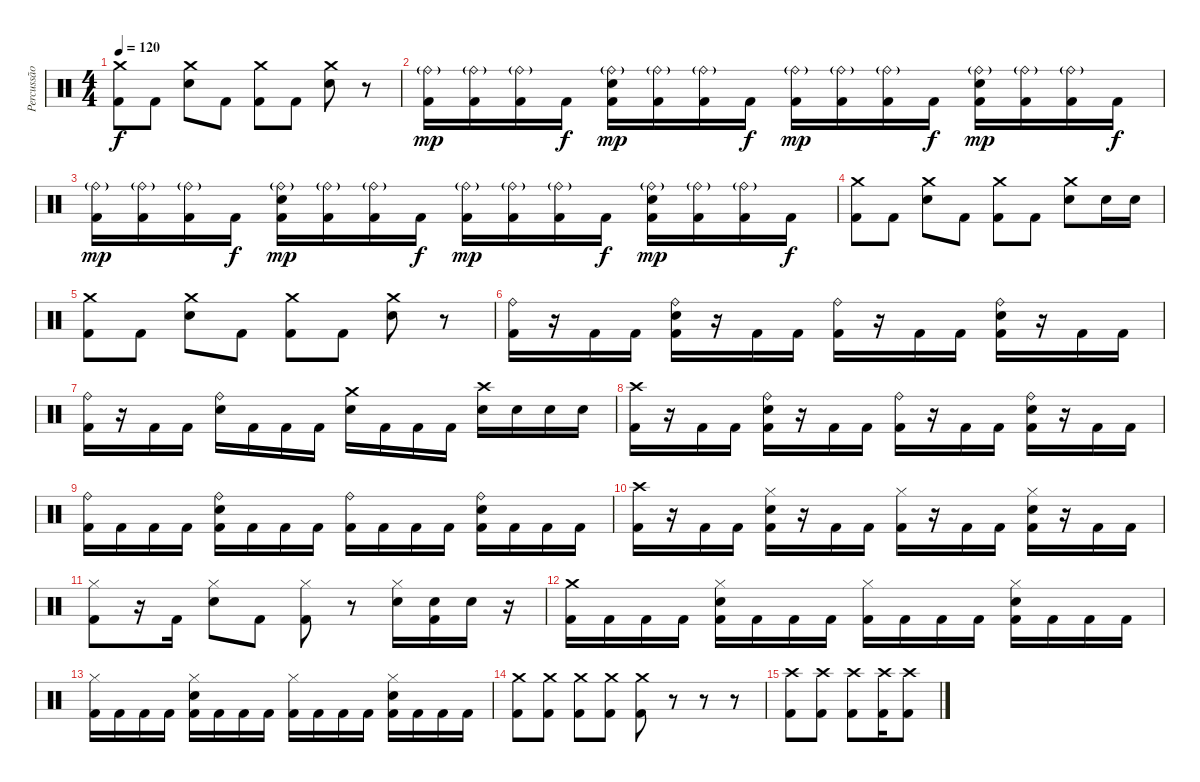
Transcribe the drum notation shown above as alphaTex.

\track ("Percussão" "Percussão") {instrument percussion}
\staff {score}
\articulation defaults
\ts (4 4)
\tempo 120
\clef neutral
\ks c
("Kick (hit) 2" "Crash medium (hit)").8{dy f} "Kick (hit) 2".8 ("Snare (hit) 2" "Crash medium (hit)").8 "Kick (hit) 2".8 ("Kick (hit) 2" "Crash medium (hit)").8 "Kick (hit) 2".8 ("Snare (hit) 2" "Crash medium (hit)").8 r.8 |
("Kick (hit) 2" "Ride (bell)"{g}).16{dy mp} ("Kick (hit) 2" "Ride (bell)"{g}).16 ("Kick (hit) 2" "Ride (bell)"{g}).16 "Kick (hit) 2".16{dy f} ("Kick (hit) 2" "Snare (hit) 2" "Ride (bell)"{g}).16{dy mp} ("Kick (hit) 2" "Ride (bell)"{g}).16 ("Kick (hit) 2" "Ride (bell)"{g}).16 "Kick (hit) 2".16{dy f} ("Kick (hit) 2" "Ride (bell)"{g}).16{dy mp} ("Kick (hit) 2" "Ride (bell)"{g}).16 ("Kick (hit) 2" "Ride (bell)"{g}).16 "Kick (hit) 2".16{dy f} ("Kick (hit) 2" "Snare (hit) 2" "Ride (bell)"{g}).16{dy mp} ("Kick (hit) 2" "Ride (bell)"{g}).16 ("Kick (hit) 2" "Ride (bell)"{g}).16 "Kick (hit) 2".16{dy f} |
("Kick (hit) 2" "Ride (bell)"{g}).16{dy mp} ("Kick (hit) 2" "Ride (bell)"{g}).16 ("Kick (hit) 2" "Ride (bell)"{g}).16 "Kick (hit) 2".16{dy f} ("Kick (hit) 2" "Snare (hit) 2" "Ride (bell)"{g}).16{dy mp} ("Kick (hit) 2" "Ride (bell)"{g}).16 ("Kick (hit) 2" "Ride (bell)"{g}).16 "Kick (hit) 2".16{dy f} ("Kick (hit) 2" "Ride (bell)"{g}).16{dy mp} ("Kick (hit) 2" "Ride (bell)"{g}).16 ("Kick (hit) 2" "Ride (bell)"{g}).16 "Kick (hit) 2".16{dy f} ("Kick (hit) 2" "Snare (hit) 2" "Ride (bell)"{g}).16{dy mp} ("Kick (hit) 2" "Ride (bell)"{g}).16 ("Kick (hit) 2" "Ride (bell)"{g}).16 "Kick (hit) 2".16{dy f} |
("Kick (hit) 2" "Crash medium (hit)").8 "Kick (hit) 2".8 ("Snare (hit) 2" "Crash medium (hit)").8 "Kick (hit) 2".8 ("Kick (hit) 2" "Crash medium (hit)").8 "Kick (hit) 2".8 ("Snare (hit) 2" "Crash medium (hit)").8 "Snare (hit) 2".16 "Snare (hit) 2".16 |
("Kick (hit) 2" "Crash medium (hit)").8 "Kick (hit) 2".8 ("Snare (hit) 2" "Crash medium (hit)").8 "Kick (hit) 2".8 ("Kick (hit) 2" "Crash medium (hit)").8 "Kick (hit) 2".8 ("Snare (hit) 2" "Crash medium (hit)").8 r.8 |
("Kick (hit) 2" "Ride (bell)").16 r.16 "Kick (hit) 2".16 "Kick (hit) 2".16 ("Kick (hit) 2" "Snare (hit) 2" "Ride (bell)").16 r.16 "Kick (hit) 2".16 "Kick (hit) 2".16 ("Kick (hit) 2" "Ride (bell)").16 r.16 "Kick (hit) 2".16 "Kick (hit) 2".16 ("Kick (hit) 2" "Snare (hit) 2" "Ride (bell)").16 r.16 "Kick (hit) 2".16 "Kick (hit) 2".16 |
("Kick (hit) 2" "Ride (bell)").16 r.16 "Kick (hit) 2".16 "Kick (hit) 2".16 ("Snare (hit) 2" "Ride (bell)").16 "Kick (hit) 2".16 "Kick (hit) 2".16 "Kick (hit) 2".16 ("Snare (hit) 2" "Crash medium (hit)").16 "Kick (hit) 2".16 "Kick (hit) 2".16 "Kick (hit) 2".16 ("Snare (hit) 2" "Crash high (hit)").16 "Snare (hit) 2".16 "Snare (hit) 2".16 "Snare (hit) 2".16 |
("Kick (hit) 2" "Crash high (hit)").16 r.16 "Kick (hit) 2".16 "Kick (hit) 2".16 ("Kick (hit) 2" "Snare (hit) 2" "Ride (bell)").16 r.16 "Kick (hit) 2".16 "Kick (hit) 2".16 ("Kick (hit) 2" "Ride (bell)").16 r.16 "Kick (hit) 2".16 "Kick (hit) 2".16 ("Kick (hit) 2" "Snare (hit) 2" "Ride (bell)").16 r.16 "Kick (hit) 2".16 "Kick (hit) 2".16 |
("Kick (hit) 2" "Ride (bell)").16 "Kick (hit) 2".16 "Kick (hit) 2".16 "Kick (hit) 2".16 ("Kick (hit) 2" "Snare (hit) 2" "Ride (bell)").16 "Kick (hit) 2".16 "Kick (hit) 2".16 "Kick (hit) 2".16 ("Kick (hit) 2" "Ride (bell)").16 "Kick (hit) 2".16 "Kick (hit) 2".16 "Kick (hit) 2".16 ("Kick (hit) 2" "Snare (hit) 2" "Ride (bell)").16 "Kick (hit) 2".16 "Kick (hit) 2".16 "Kick (hit) 2".16 |
("Kick (hit) 2" "Crash high (hit)").16 r.16 "Kick (hit) 2".16 "Kick (hit) 2".16 ("Kick (hit) 2" "Snare (hit) 2" "Hi-Hat (closed)").16 r.16 "Kick (hit) 2".16 "Kick (hit) 2".16 ("Kick (hit) 2" "Hi-Hat (closed)").16 r.16 "Kick (hit) 2".16 "Kick (hit) 2".16 ("Kick (hit) 2" "Snare (hit) 2" "Hi-Hat (closed)").16 r.16 "Kick (hit) 2".16 "Kick (hit) 2".16 |
("Kick (hit) 2" "Hi-Hat (closed)").8 r.16 "Kick (hit) 2".16 ("Snare (hit) 2" "Hi-Hat (closed)").8 "Kick (hit) 2".8 ("Kick (hit) 2" "Hi-Hat (closed)").8 r.8 ("Snare (hit) 2" "Hi-Hat (closed)").16 ("Kick (hit) 2" "Snare (hit) 2").16 "Snare (hit) 2".16 r.16 |
("Kick (hit) 2" "Crash medium (hit)").16 "Kick (hit) 2".16 "Kick (hit) 2".16 "Kick (hit) 2".16 ("Kick (hit) 2" "Snare (hit) 2" "Hi-Hat (closed)").16 "Kick (hit) 2".16 "Kick (hit) 2".16 "Kick (hit) 2".16 ("Kick (hit) 2" "Hi-Hat (closed)").16 "Kick (hit) 2".16 "Kick (hit) 2".16 "Kick (hit) 2".16 ("Kick (hit) 2" "Snare (hit) 2" "Hi-Hat (closed)").16 "Kick (hit) 2".16 "Kick (hit) 2".16 "Kick (hit) 2".16 |
("Kick (hit) 2" "Hi-Hat (closed)").16 "Kick (hit) 2".16 "Kick (hit) 2".16 "Kick (hit) 2".16 ("Kick (hit) 2" "Snare (hit) 2" "Hi-Hat (closed)").16 "Kick (hit) 2".16 "Kick (hit) 2".16 "Kick (hit) 2".16 ("Kick (hit) 2" "Hi-Hat (closed)").16 "Kick (hit) 2".16 "Kick (hit) 2".16 "Kick (hit) 2".16 ("Kick (hit) 2" "Snare (hit) 2" "Hi-Hat (closed)").16 "Kick (hit) 2".16 "Kick (hit) 2".16 "Kick (hit) 2".16 |
("Kick (hit) 2" "Crash medium (hit)").8 ("Kick (hit) 2" "Crash medium (hit)").8 ("Kick (hit) 2" "Crash medium (hit)").8 ("Kick (hit) 2" "Crash medium (hit)").8 ("Kick (hit) 2" "Crash medium (hit)").8 r.8 r.8 r.8 |
("Kick (hit) 2" "Crash high (hit)").8 ("Kick (hit) 2" "Crash high (hit)").8 ("Kick (hit) 2" "Crash high (hit)").8 ("Kick (hit) 2" "Crash high (hit)").16 ("Kick (hit) 2" "Crash high (hit)").8
